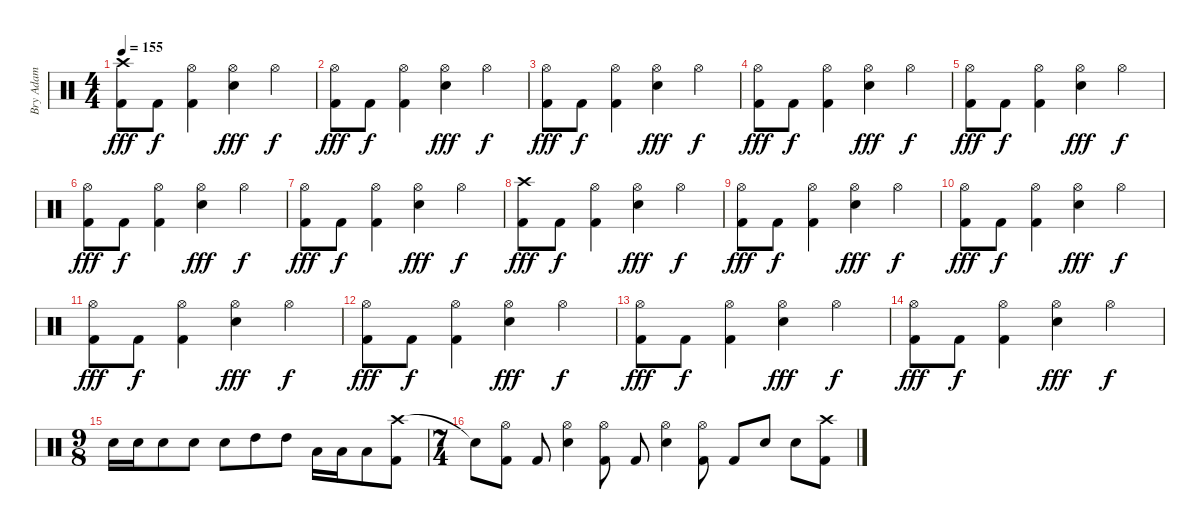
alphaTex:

\track ("Bry Adam " "Bry Adam ") {instrument percussion}
\staff {score}
\articulation defaults
\ts (4 4)
\tempo 155
\clef neutral
\ks c
("Crash high (hit)" "Kick (hit) 2").8{dy fff} "Kick (hit) 2".8{dy f} ("Hi-Hat (open)" "Kick (hit) 2").4 ("Hi-Hat (open)" "Snare (hit) 2").4{dy fff} "Hi-Hat (open)".4{dy f} |
("Hi-Hat (open)" "Kick (hit) 2").8{dy fff} "Kick (hit) 2".8{dy f} ("Hi-Hat (open)" "Kick (hit) 2").4 ("Hi-Hat (open)" "Snare (hit) 2").4{dy fff} "Hi-Hat (open)".4{dy f} |
("Hi-Hat (open)" "Kick (hit) 2").8{dy fff} "Kick (hit) 2".8{dy f} ("Hi-Hat (open)" "Kick (hit) 2").4 ("Hi-Hat (open)" "Snare (hit) 2").4{dy fff} "Hi-Hat (open)".4{dy f} |
("Hi-Hat (open)" "Kick (hit) 2").8{dy fff} "Kick (hit) 2".8{dy f} ("Hi-Hat (open)" "Kick (hit) 2").4 ("Hi-Hat (open)" "Snare (hit) 2").4{dy fff} "Hi-Hat (open)".4{dy f} |
("Hi-Hat (open)" "Kick (hit) 2").8{dy fff} "Kick (hit) 2".8{dy f} ("Hi-Hat (open)" "Kick (hit) 2").4 ("Hi-Hat (open)" "Snare (hit) 2").4{dy fff} "Hi-Hat (open)".4{dy f} |
("Hi-Hat (open)" "Kick (hit) 2").8{dy fff} "Kick (hit) 2".8{dy f} ("Hi-Hat (open)" "Kick (hit) 2").4 ("Hi-Hat (open)" "Snare (hit) 2").4{dy fff} "Hi-Hat (open)".4{dy f} |
("Hi-Hat (open)" "Kick (hit) 2").8{dy fff} "Kick (hit) 2".8{dy f} ("Hi-Hat (open)" "Kick (hit) 2").4 ("Hi-Hat (open)" "Snare (hit) 2").4{dy fff} "Hi-Hat (open)".4{dy f} |
("Crash high (hit)" "Kick (hit) 2").8{dy fff} "Kick (hit) 2".8{dy f} ("Hi-Hat (open)" "Kick (hit) 2").4 ("Hi-Hat (open)" "Snare (hit) 2").4{dy fff} "Hi-Hat (open)".4{dy f} |
("Hi-Hat (open)" "Kick (hit) 2").8{dy fff} "Kick (hit) 2".8{dy f} ("Hi-Hat (open)" "Kick (hit) 2").4 ("Hi-Hat (open)" "Snare (hit) 2").4{dy fff} "Hi-Hat (open)".4{dy f} |
("Hi-Hat (open)" "Kick (hit) 2").8{dy fff} "Kick (hit) 2".8{dy f} ("Hi-Hat (open)" "Kick (hit) 2").4 ("Hi-Hat (open)" "Snare (hit) 2").4{dy fff} "Hi-Hat (open)".4{dy f} |
("Hi-Hat (open)" "Kick (hit) 2").8{dy fff} "Kick (hit) 2".8{dy f} ("Hi-Hat (open)" "Kick (hit) 2").4 ("Hi-Hat (open)" "Snare (hit) 2").4{dy fff} "Hi-Hat (open)".4{dy f} |
("Hi-Hat (open)" "Kick (hit) 2").8{dy fff} "Kick (hit) 2".8{dy f} ("Hi-Hat (open)" "Kick (hit) 2").4 ("Hi-Hat (open)" "Snare (hit) 2").4{dy fff} "Hi-Hat (open)".4{dy f} |
("Hi-Hat (open)" "Kick (hit) 2").8{dy fff} "Kick (hit) 2".8{dy f} ("Hi-Hat (open)" "Kick (hit) 2").4 ("Hi-Hat (open)" "Snare (hit) 2").4{dy fff} "Hi-Hat (open)".4{dy f} |
("Hi-Hat (open)" "Kick (hit) 2").8{dy fff} "Kick (hit) 2".8{dy f} ("Hi-Hat (open)" "Kick (hit) 2").4 ("Hi-Hat (open)" "Snare (hit) 2").4{dy fff} "Hi-Hat (open)".4{dy f} |
\ts (9 8)
"Snare (hit) 2".16 "Snare (hit) 2".16 "Snare (hit) 2".8 "Snare (hit) 2".8 "Snare (hit) 2".8 "High Tom (hit)".8 "High Tom (hit)".8 "Low Tom (hit)".16 "Low Tom (hit)".16 "Low Tom (hit)".8 ("Crash high (hit)" "Kick (hit) 2").8 |
\ts (7 4)
"Snare (hit)"{t}.8 ("Hi-Hat (open)" "Kick (hit) 2").8 "Kick (hit) 2".8 ("Hi-Hat (open)" "Snare (hit) 2").4 ("Hi-Hat (open)" "Kick (hit) 2").8 "Kick (hit) 2".8 ("Hi-Hat (open)" "Snare (hit) 2").4 ("Hi-Hat (open)" "Kick (hit) 2").8 "Kick (hit) 2".8 "Snare (hit) 2".8 "Snare (hit) 2".8 ("Crash high (hit)" "Kick (hit) 2").8
